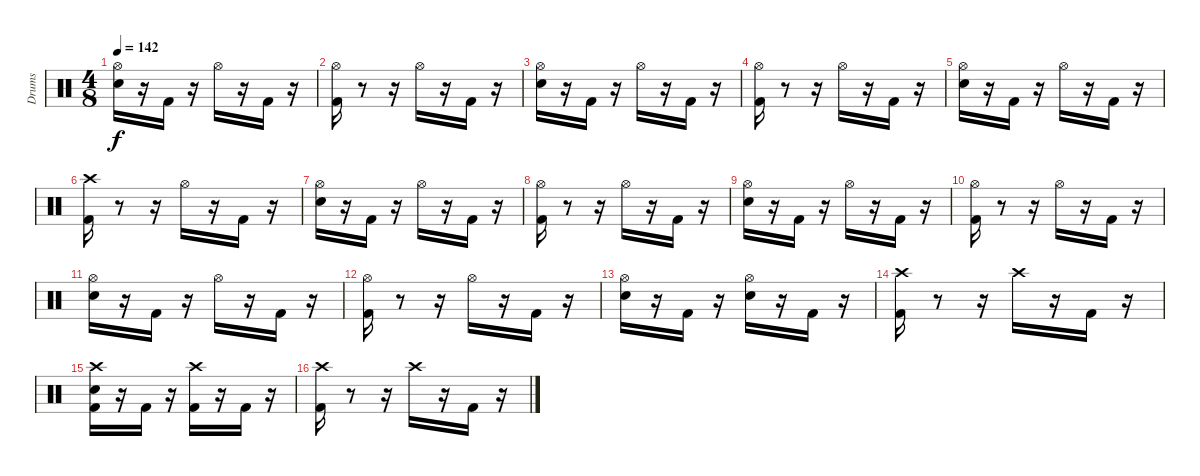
\track ("Drums" "Drums") {instrument percussion}
\staff {score}
\articulation defaults
\ts (4 8)
\tempo 142
\clef neutral
\ks c
("Electric Snare (hit)" "Hi-Hat (open)").16{dy f} r.16 "Kick (hit) 2".16 r.16 "Hi-Hat (open)".16 r.16 "Kick (hit) 2".16 r.16 |
("Kick (hit) 2" "Hi-Hat (open)").16 r.8 r.16 "Hi-Hat (open)".16 r.16 "Kick (hit) 2".16 r.16 |
("Electric Snare (hit)" "Hi-Hat (open)").16 r.16 "Kick (hit) 2".16 r.16 "Hi-Hat (open)".16 r.16 "Kick (hit) 2".16 r.16 |
("Kick (hit) 2" "Hi-Hat (open)").16 r.8 r.16 "Hi-Hat (open)".16 r.16 "Kick (hit) 2".16 r.16 |
("Electric Snare (hit)" "Hi-Hat (open)").16 r.16 "Kick (hit) 2".16 r.16 "Hi-Hat (open)".16 r.16 "Kick (hit) 2".16 r.16 |
("Kick (hit) 2" "Crash high (hit)").16 r.8 r.16 "Hi-Hat (open)".16 r.16 "Kick (hit) 2".16 r.16 |
("Electric Snare (hit)" "Hi-Hat (open)").16 r.16 "Kick (hit) 2".16 r.16 "Hi-Hat (open)".16 r.16 "Kick (hit) 2".16 r.16 |
("Kick (hit) 2" "Hi-Hat (open)").16 r.8 r.16 "Hi-Hat (open)".16 r.16 "Kick (hit) 2".16 r.16 |
("Electric Snare (hit)" "Hi-Hat (open)").16 r.16 "Kick (hit) 2".16 r.16 "Hi-Hat (open)".16 r.16 "Kick (hit) 2".16 r.16 |
("Kick (hit) 2" "Hi-Hat (open)").16 r.8 r.16 "Hi-Hat (open)".16 r.16 "Kick (hit) 2".16 r.16 |
("Electric Snare (hit)" "Hi-Hat (open)").16 r.16 "Kick (hit) 2".16 r.16 "Hi-Hat (open)".16 r.16 "Kick (hit) 2".16 r.16 |
("Kick (hit) 2" "Hi-Hat (open)").16 r.8 r.16 "Hi-Hat (open)".16 r.16 "Kick (hit) 2".16 r.16 |
("Electric Snare (hit)" "Hi-Hat (open)").16 r.16 "Kick (hit) 2".16 r.16 ("Hi-Hat (open)" "Electric Snare (hit)").16 r.16 "Kick (hit) 2".16 r.16 |
("Kick (hit) 2" "Crash high (hit)").16 r.8 r.16 "Crash high (hit)".16 r.16 "Kick (hit) 2".16 r.16 |
("Electric Snare (hit)" "Kick (hit) 2" "Crash high (hit)").16 r.16 "Kick (hit) 2".16 r.16 ("Crash high (hit)" "Kick (hit) 2").16 r.16 "Kick (hit) 2".16 r.16 |
("Kick (hit) 2" "Crash high (hit)").16 r.8 r.16 "Crash high (hit)".16 r.16 "Kick (hit) 2".16 r.16
